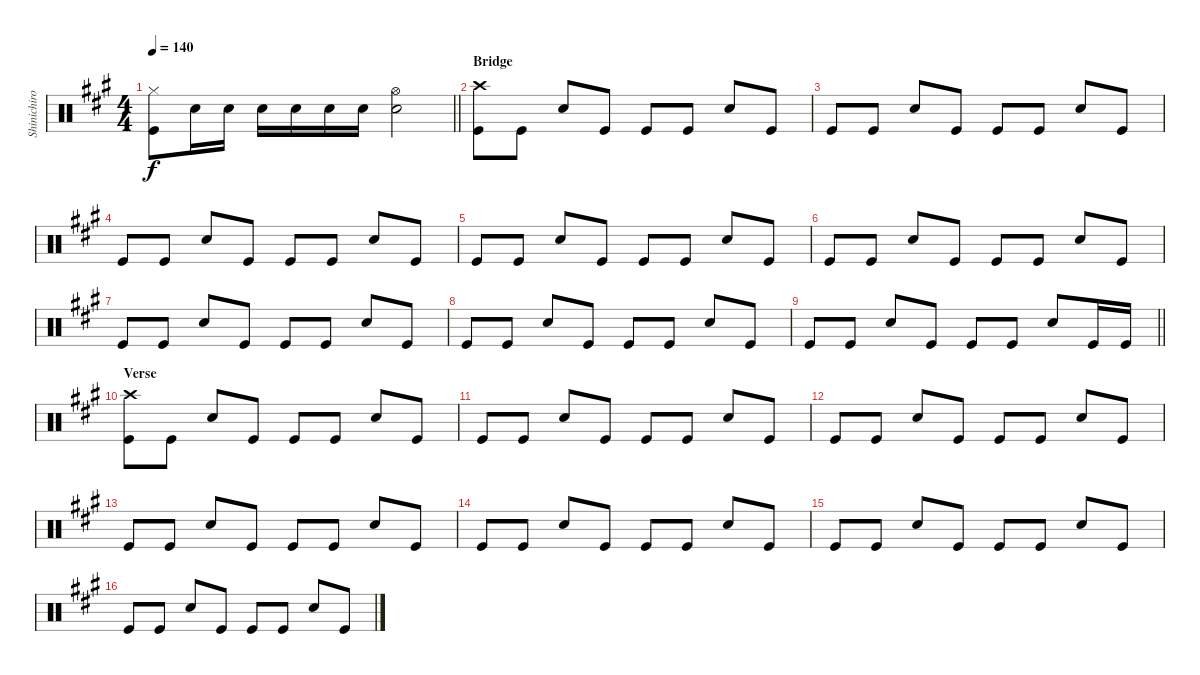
\track ("Shinichiro Drums" "Shinichiro") {instrument percussion}
\staff {score}
\articulation defaults
\ts (4 4)
\tempo 140
\clef neutral
\barLineRight lightlight
\ks a
("Hi-Hat (closed)" "Kick (hit)").8{dy f} "Snare (hit) 2".16 "Snare (hit) 2".16 "Snare (hit) 2".16 "Snare (hit) 2".16 "Snare (hit) 2".16 "Snare (hit) 2".16 ("Hi-Hat (open)" "Snare (hit) 2").2 |
\section ("" "Bridge")
("Crash high (hit)" "Kick (hit)").8 "Kick (hit)".8 "Snare (hit) 2".8 "Kick (hit)".8 "Kick (hit)".8 "Kick (hit)".8 "Snare (hit) 2".8 "Kick (hit)".8 |
"Kick (hit)".8 "Kick (hit)".8 "Snare (hit) 2".8 "Kick (hit)".8 "Kick (hit)".8 "Kick (hit)".8 "Snare (hit) 2".8 "Kick (hit)".8 |
"Kick (hit)".8 "Kick (hit)".8 "Snare (hit) 2".8 "Kick (hit)".8 "Kick (hit)".8 "Kick (hit)".8 "Snare (hit) 2".8 "Kick (hit)".8 |
"Kick (hit)".8 "Kick (hit)".8 "Snare (hit) 2".8 "Kick (hit)".8 "Kick (hit)".8 "Kick (hit)".8 "Snare (hit) 2".8 "Kick (hit)".8 |
"Kick (hit)".8 "Kick (hit)".8 "Snare (hit) 2".8 "Kick (hit)".8 "Kick (hit)".8 "Kick (hit)".8 "Snare (hit) 2".8 "Kick (hit)".8 |
"Kick (hit)".8 "Kick (hit)".8 "Snare (hit) 2".8 "Kick (hit)".8 "Kick (hit)".8 "Kick (hit)".8 "Snare (hit) 2".8 "Kick (hit)".8 |
"Kick (hit)".8 "Kick (hit)".8 "Snare (hit) 2".8 "Kick (hit)".8 "Kick (hit)".8 "Kick (hit)".8 "Snare (hit) 2".8 "Kick (hit)".8 |
\barLineRight lightlight "Kick (hit)".8 "Kick (hit)".8 "Snare (hit) 2".8 "Kick (hit)".8 "Kick (hit)".8 "Kick (hit)".8 "Snare (hit) 2".8 "Kick (hit)".16 "Kick (hit)".16
|
\section ("" "Verse")
("Crash high (hit)" "Kick (hit)").8 "Kick (hit)".8 "Snare (hit) 2".8 "Kick (hit)".8 "Kick (hit)".8 "Kick (hit)".8 "Snare (hit) 2".8 "Kick (hit)".8 |
"Kick (hit)".8 "Kick (hit)".8 "Snare (hit) 2".8 "Kick (hit)".8 "Kick (hit)".8 "Kick (hit)".8 "Snare (hit) 2".8 "Kick (hit)".8 |
"Kick (hit)".8 "Kick (hit)".8 "Snare (hit) 2".8 "Kick (hit)".8 "Kick (hit)".8 "Kick (hit)".8 "Snare (hit) 2".8 "Kick (hit)".8 |
"Kick (hit)".8 "Kick (hit)".8 "Snare (hit) 2".8 "Kick (hit)".8 "Kick (hit)".8 "Kick (hit)".8 "Snare (hit) 2".8 "Kick (hit)".8 |
"Kick (hit)".8 "Kick (hit)".8 "Snare (hit) 2".8 "Kick (hit)".8 "Kick (hit)".8 "Kick (hit)".8 "Snare (hit) 2".8 "Kick (hit)".8 |
"Kick (hit)".8 "Kick (hit)".8 "Snare (hit) 2".8 "Kick (hit)".8 "Kick (hit)".8 "Kick (hit)".8 "Snare (hit) 2".8 "Kick (hit)".8 |
"Kick (hit)".8 "Kick (hit)".8 "Snare (hit) 2".8 "Kick (hit)".8 "Kick (hit)".8 "Kick (hit)".8 "Snare (hit) 2".8 "Kick (hit)".8
